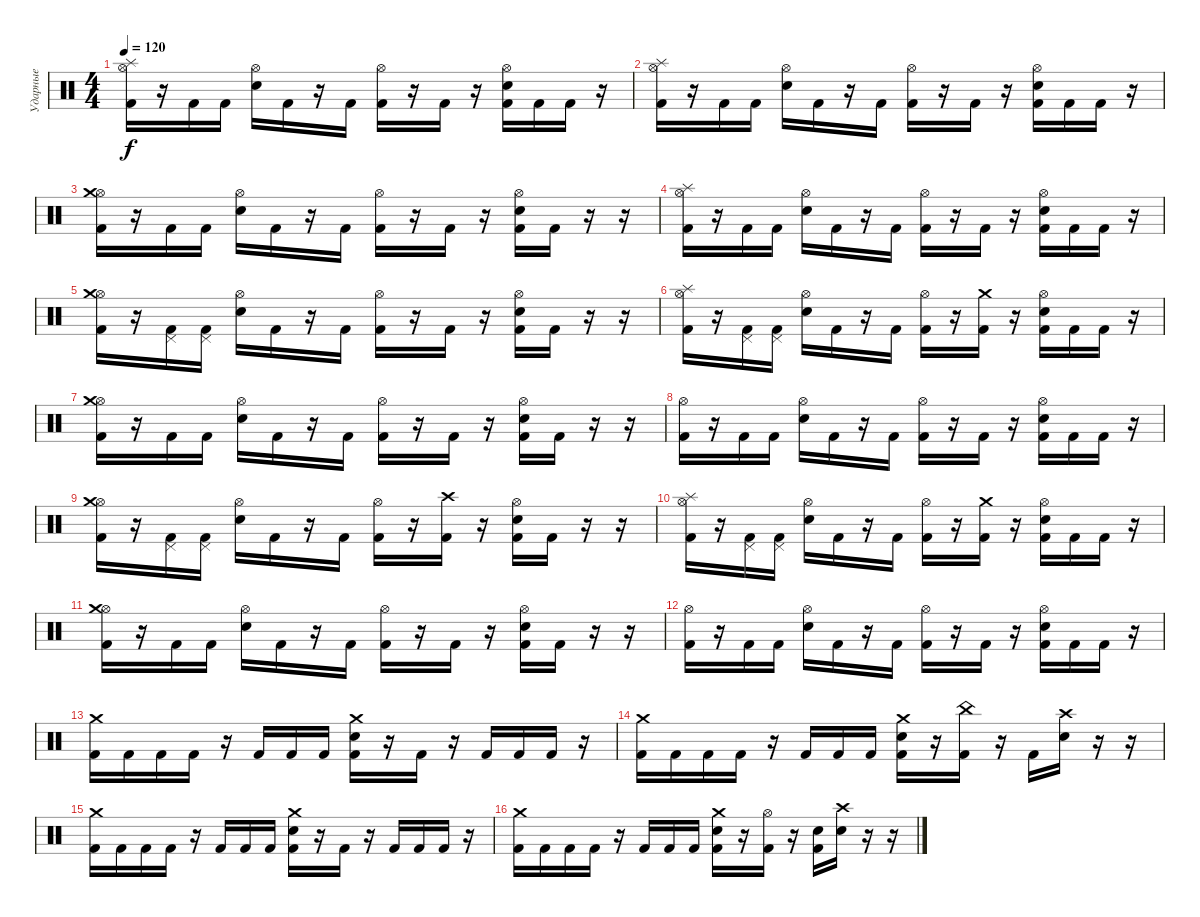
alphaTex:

\track ("Ударные" "Ударные") {instrument percussion}
\staff {score}
\articulation defaults
\ts (4 4)
\tempo 120
\clef neutral
\ks c
("Hi-Hat (open)" "Splash (hit)" "Kick (hit) 2").16{dy f} r.16 "Kick (hit) 2".16 "Kick (hit) 2".16 ("Hi-Hat (open)" "Electric Snare (hit)").16 "Kick (hit) 2".16 r.16 "Kick (hit) 2".16 ("Hi-Hat (open)" "Kick (hit) 2").16 r.16 "Kick (hit) 2".16 r.16 ("Hi-Hat (open)" "Electric Snare (hit)" "Kick (hit) 2").16 "Kick (hit) 2".16 "Kick (hit) 2".16 r.16 |
("Hi-Hat (open)" "Splash (hit)" "Kick (hit) 2").16 r.16 "Kick (hit) 2".16 "Kick (hit) 2".16 ("Hi-Hat (open)" "Electric Snare (hit)").16 "Kick (hit) 2".16 r.16 "Kick (hit) 2".16 ("Hi-Hat (open)" "Kick (hit) 2").16 r.16 "Kick (hit) 2".16 r.16 ("Hi-Hat (open)" "Electric Snare (hit)" "Kick (hit) 2").16 "Kick (hit) 2".16 "Kick (hit) 2".16 r.16 |
("Hi-Hat (open)" "Crash medium (hit)" "Kick (hit) 2").16 r.16 "Kick (hit) 2".16 "Kick (hit) 2".16 ("Hi-Hat (open)" "Electric Snare (hit)").16 "Kick (hit) 2".16 r.16 "Kick (hit) 2".16 ("Hi-Hat (open)" "Kick (hit) 2").16 r.16 "Kick (hit) 2".16 r.16 ("Hi-Hat (open)" "Electric Snare (hit)" "Kick (hit) 2").16 "Kick (hit) 2".16 r.16 r.16 |
("Hi-Hat (open)" "Splash (hit)" "Kick (hit) 2").16 r.16 "Kick (hit) 2".16 "Kick (hit) 2".16 ("Hi-Hat (open)" "Electric Snare (hit)").16 "Kick (hit) 2".16 r.16 "Kick (hit) 2".16 ("Hi-Hat (open)" "Kick (hit) 2").16 r.16 "Kick (hit) 2".16 r.16 ("Hi-Hat (open)" "Electric Snare (hit)" "Kick (hit) 2").16 "Kick (hit) 2".16 "Kick (hit) 2".16 r.16 |
("Hi-Hat (open)" "Crash medium (hit)" "Kick (hit) 2").16 r.16 ("Pedal Hi-Hat (hit)" "Kick (hit) 2").16 ("Pedal Hi-Hat (hit)" "Kick (hit) 2").16 ("Hi-Hat (open)" "Electric Snare (hit)").16 "Kick (hit) 2".16 r.16 "Kick (hit) 2".16 ("Hi-Hat (open)" "Kick (hit) 2").16 r.16 "Kick (hit) 2".16 r.16 ("Hi-Hat (open)" "Electric Snare (hit)" "Kick (hit) 2").16 "Kick (hit) 2".16 r.16 r.16 |
("Hi-Hat (open)" "Splash (hit)" "Kick (hit) 2").16 r.16 ("Pedal Hi-Hat (hit)" "Kick (hit) 2").16 ("Pedal Hi-Hat (hit)" "Kick (hit) 2").16 ("Hi-Hat (open)" "Electric Snare (hit)").16 "Kick (hit) 2".16 r.16 "Kick (hit) 2".16 ("Hi-Hat (open)" "Kick (hit) 2").16 r.16 ("Crash medium (hit)" "Kick (hit) 2").16 r.16 ("Hi-Hat (open)" "Electric Snare (hit)" "Kick (hit) 2").16 "Kick (hit) 2".16 "Kick (hit) 2".16 r.16 |
("Hi-Hat (open)" "Crash medium (hit)" "Kick (hit) 2").16 r.16 "Kick (hit) 2".16 "Kick (hit) 2".16 ("Hi-Hat (open)" "Electric Snare (hit)").16 "Kick (hit) 2".16 r.16 "Kick (hit) 2".16 ("Hi-Hat (open)" "Kick (hit) 2").16 r.16 "Kick (hit) 2".16 r.16 ("Hi-Hat (open)" "Electric Snare (hit)" "Kick (hit) 2").16 "Kick (hit) 2".16 r.16 r.16 |
("Hi-Hat (open)" "Kick (hit) 2").16 r.16 "Kick (hit) 2".16 "Kick (hit) 2".16 ("Hi-Hat (open)" "Electric Snare (hit)").16 "Kick (hit) 2".16 r.16 "Kick (hit) 2".16 ("Hi-Hat (open)" "Kick (hit) 2").16 r.16 "Kick (hit) 2".16 r.16 ("Hi-Hat (open)" "Electric Snare (hit)" "Kick (hit) 2").16 "Kick (hit) 2".16 "Kick (hit) 2".16 r.16 |
("Hi-Hat (open)" "Crash medium (hit)" "Kick (hit) 2").16 r.16 ("Pedal Hi-Hat (hit)" "Kick (hit) 2").16 ("Pedal Hi-Hat (hit)" "Kick (hit) 2").16 ("Hi-Hat (open)" "Electric Snare (hit)").16 "Kick (hit) 2".16 r.16 "Kick (hit) 2".16 ("Hi-Hat (open)" "Kick (hit) 2").16 r.16 ("Crash high (hit)" "Kick (hit) 2").16 r.16 ("Hi-Hat (open)" "Electric Snare (hit)" "Kick (hit) 2").16 "Kick (hit) 2".16 r.16 r.16 |
("Hi-Hat (open)" "Splash (hit)" "Kick (hit) 2").16 r.16 ("Pedal Hi-Hat (hit)" "Kick (hit) 2").16 ("Pedal Hi-Hat (hit)" "Kick (hit) 2").16 ("Hi-Hat (open)" "Electric Snare (hit)").16 "Kick (hit) 2".16 r.16 "Kick (hit) 2".16 ("Hi-Hat (open)" "Kick (hit) 2").16 r.16 ("Crash medium (hit)" "Kick (hit) 2").16 r.16 ("Hi-Hat (open)" "Electric Snare (hit)" "Kick (hit) 2").16 "Kick (hit) 2".16 "Kick (hit) 2".16 r.16 |
("Hi-Hat (open)" "Crash medium (hit)" "Kick (hit) 2").16 r.16 "Kick (hit) 2".16 "Kick (hit) 2".16 ("Hi-Hat (open)" "Electric Snare (hit)").16 "Kick (hit) 2".16 r.16 "Kick (hit) 2".16 ("Hi-Hat (open)" "Kick (hit) 2").16 r.16 "Kick (hit) 2".16 r.16 ("Hi-Hat (open)" "Electric Snare (hit)" "Kick (hit) 2").16 "Kick (hit) 2".16 r.16 r.16 |
("Hi-Hat (open)" "Kick (hit) 2").16 r.16 "Kick (hit) 2".16 "Kick (hit) 2".16 ("Hi-Hat (open)" "Electric Snare (hit)").16 "Kick (hit) 2".16 r.16 "Kick (hit) 2".16 ("Hi-Hat (open)" "Kick (hit) 2").16 r.16 "Kick (hit) 2".16 r.16 ("Hi-Hat (open)" "Electric Snare (hit)" "Kick (hit) 2").16 "Kick (hit) 2".16 "Kick (hit) 2".16 r.16 |
("Crash medium (hit)" "Kick (hit) 2").16 "Kick (hit) 2".16 "Kick (hit) 2".16 "Kick (hit) 2".16 r.16 "Kick (hit) 2".16 "Kick (hit) 2".16 "Kick (hit) 2".16 ("Crash medium (hit)" "Electric Snare (hit)" "Kick (hit) 2").16 r.16 "Kick (hit) 2".16 r.16 "Kick (hit) 2".16 "Kick (hit) 2".16 "Kick (hit) 2".16 r.16 |
("Crash medium (hit)" "Kick (hit) 2").16 "Kick (hit) 2".16 "Kick (hit) 2".16 "Kick (hit) 2".16 r.16 "Kick (hit) 2".16 "Kick (hit) 2".16 "Kick (hit) 2".16 ("Crash medium (hit)" "Electric Snare (hit)" "Kick (hit) 2").16 r.16 ("China (hit)" "Kick (hit) 2").16 r.16 "Kick (hit) 2".16 ("Crash high (hit)" "Electric Snare (hit)").16 r.16 r.16 |
("Crash medium (hit)" "Kick (hit) 2").16 "Kick (hit) 2".16 "Kick (hit) 2".16 "Kick (hit) 2".16 r.16 "Kick (hit) 2".16 "Kick (hit) 2".16 "Kick (hit) 2".16 ("Crash medium (hit)" "Electric Snare (hit)" "Kick (hit) 2").16 r.16 "Kick (hit) 2".16 r.16 "Kick (hit) 2".16 "Kick (hit) 2".16 "Kick (hit) 2".16 r.16 |
("Crash medium (hit)" "Kick (hit) 2").16 "Kick (hit) 2".16 "Kick (hit) 2".16 "Kick (hit) 2".16 r.16 "Kick (hit) 2".16 "Kick (hit) 2".16 "Kick (hit) 2".16 ("Crash medium (hit)" "Electric Snare (hit)" "Kick (hit) 2").16 r.16 ("Hi-Hat (open)" "Kick (hit) 2").16 r.16 ("Electric Snare (hit)" "Kick (hit) 2").16 ("Crash high (hit)" "Electric Snare (hit)").16 r.16 r.16
